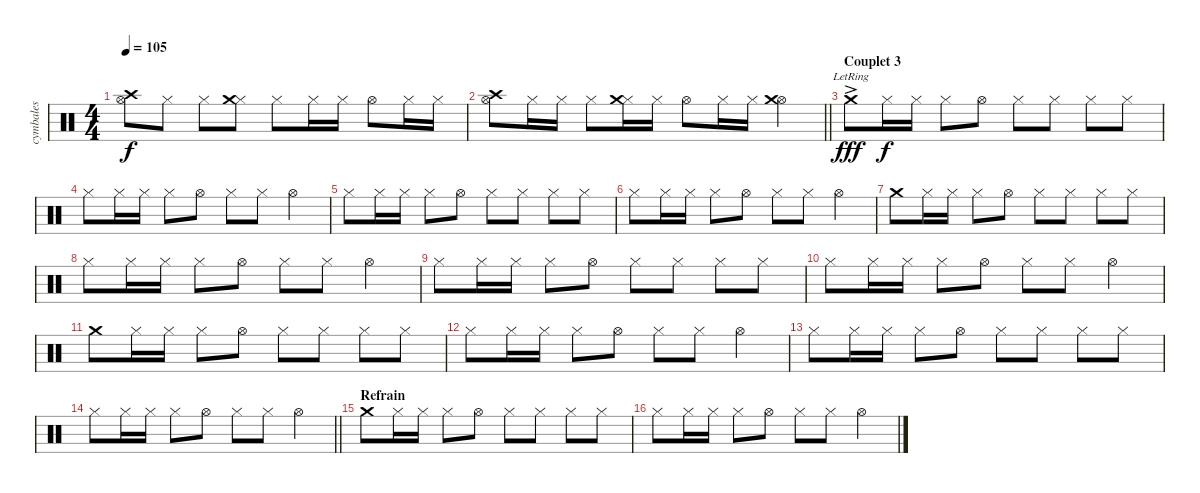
\track ("cymbales" "cymbales") {instrument percussion}
\staff {score}
\articulation defaults
\ts (4 4)
\tempo 105
\clef neutral
\ks c
("Hi-Hat (open)" "Crash high (hit)").8{dy f} "Hi-Hat (closed)".8 "Hi-Hat (closed)".8 ("Hi-Hat (closed)" "Crash medium (hit)").8 "Hi-Hat (closed)".8 "Hi-Hat (closed)".16 "Hi-Hat (closed)".16 "Hi-Hat (open)".8 "Hi-Hat (closed)".16 "Hi-Hat (closed)".16 |
\barLineRight lightlight
("Hi-Hat (open)" "Crash high (hit)").8 "Hi-Hat (closed)".16 "Hi-Hat (closed)".16 "Hi-Hat (closed)".8 ("Hi-Hat (closed)" "Crash medium (hit)").16 "Hi-Hat (closed)".16 "Hi-Hat (open)".8 "Hi-Hat (closed)".16 "Hi-Hat (closed)".16 ("Hi-Hat (open)" "Crash medium (hit)").4 |
\section ("" "Couplet 3")
"Crash medium (hit)"{ac lr}.8{dy fff} "Hi-Hat (closed)".16{dy f} "Hi-Hat (closed)".16 "Hi-Hat (closed)".8 "Hi-Hat (open)".8 "Hi-Hat (closed)".8 "Hi-Hat (closed)".8 "Hi-Hat (closed)".8 "Hi-Hat (closed)".8 |
"Hi-Hat (closed)".8 "Hi-Hat (closed)".16 "Hi-Hat (closed)".16 "Hi-Hat (closed)".8 "Hi-Hat (open)".8 "Hi-Hat (closed)".8 "Hi-Hat (closed)".8 "Hi-Hat (open)".4 |
"Hi-Hat (closed)".8 "Hi-Hat (closed)".16 "Hi-Hat (closed)".16 "Hi-Hat (closed)".8 "Hi-Hat (open)".8 "Hi-Hat (closed)".8 "Hi-Hat (closed)".8 "Hi-Hat (closed)".8 "Hi-Hat (closed)".8 |
"Hi-Hat (closed)".8 "Hi-Hat (closed)".16 "Hi-Hat (closed)".16 "Hi-Hat (closed)".8 "Hi-Hat (open)".8 "Hi-Hat (closed)".8 "Hi-Hat (closed)".8 "Hi-Hat (open)".4 |
"Crash medium (hit)".8 "Hi-Hat (closed)".16 "Hi-Hat (closed)".16 "Hi-Hat (closed)".8 "Hi-Hat (open)".8 "Hi-Hat (closed)".8 "Hi-Hat (closed)".8 "Hi-Hat (closed)".8 "Hi-Hat (closed)".8 |
"Hi-Hat (closed)".8 "Hi-Hat (closed)".16 "Hi-Hat (closed)".16 "Hi-Hat (closed)".8 "Hi-Hat (open)".8 "Hi-Hat (closed)".8 "Hi-Hat (closed)".8 "Hi-Hat (open)".4 |
"Hi-Hat (closed)".8 "Hi-Hat (closed)".16 "Hi-Hat (closed)".16 "Hi-Hat (closed)".8 "Hi-Hat (open)".8 "Hi-Hat (closed)".8 "Hi-Hat (closed)".8 "Hi-Hat (closed)".8 "Hi-Hat (closed)".8 |
"Hi-Hat (closed)".8 "Hi-Hat (closed)".16 "Hi-Hat (closed)".16 "Hi-Hat (closed)".8 "Hi-Hat (open)".8 "Hi-Hat (closed)".8 "Hi-Hat (closed)".8 "Hi-Hat (open)".4 |
"Crash medium (hit)".8 "Hi-Hat (closed)".16 "Hi-Hat (closed)".16 "Hi-Hat (closed)".8 "Hi-Hat (open)".8 "Hi-Hat (closed)".8 "Hi-Hat (closed)".8 "Hi-Hat (closed)".8 "Hi-Hat (closed)".8 |
"Hi-Hat (closed)".8 "Hi-Hat (closed)".16 "Hi-Hat (closed)".16 "Hi-Hat (closed)".8 "Hi-Hat (open)".8 "Hi-Hat (closed)".8 "Hi-Hat (closed)".8 "Hi-Hat (open)".4 |
"Hi-Hat (closed)".8 "Hi-Hat (closed)".16 "Hi-Hat (closed)".16 "Hi-Hat (closed)".8 "Hi-Hat (open)".8 "Hi-Hat (closed)".8 "Hi-Hat (closed)".8 "Hi-Hat (closed)".8 "Hi-Hat (closed)".8 |
\barLineRight lightlight "Hi-Hat (closed)".8 "Hi-Hat (closed)".16 "Hi-Hat (closed)".16 "Hi-Hat (closed)".8 "Hi-Hat (open)".8 "Hi-Hat (closed)".8 "Hi-Hat (closed)".8 "Hi-Hat (open)".4
|
\section ("" "Refrain")
"Crash medium (hit)".8 "Hi-Hat (closed)".16 "Hi-Hat (closed)".16 "Hi-Hat (closed)".8 "Hi-Hat (open)".8 "Hi-Hat (closed)".8 "Hi-Hat (closed)".8 "Hi-Hat (closed)".8 "Hi-Hat (closed)".8 |
"Hi-Hat (closed)".8 "Hi-Hat (closed)".16 "Hi-Hat (closed)".16 "Hi-Hat (closed)".8 "Hi-Hat (open)".8 "Hi-Hat (closed)".8 "Hi-Hat (closed)".8 "Hi-Hat (open)".4
